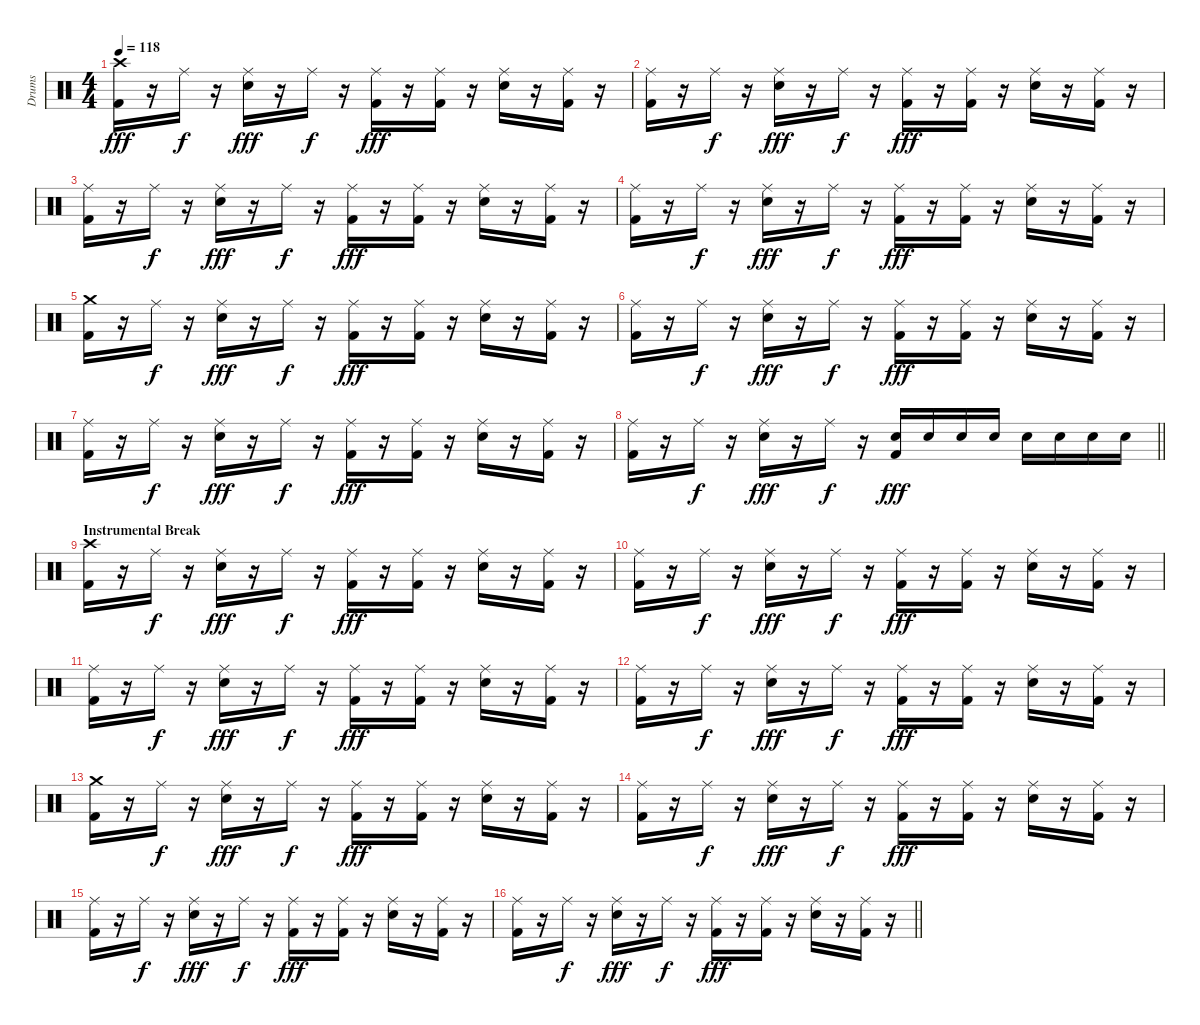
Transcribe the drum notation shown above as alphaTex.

\track ("Drums" "Drums") {instrument percussion}
\staff {score}
\articulation defaults
\ts (4 4)
\tempo 118
\clef neutral
\ks c
("Crash high (hit)" "Kick (hit) 2").16{dy fff} r.16 "Ride (middle)".16{dy f} r.16 ("Ride (middle)" "Snare (hit) 2").16{dy fff} r.16 "Ride (middle)".16{dy f} r.16 ("Ride (middle)" "Kick (hit) 2").16{dy fff} r.16 ("Ride (middle)" "Kick (hit) 2").16 r.16 ("Ride (middle)" "Snare (hit) 2").16 r.16 ("Ride (middle)" "Kick (hit) 2").16 r.16 |
("Ride (middle)" "Kick (hit) 2").16 r.16 "Ride (middle)".16{dy f} r.16 ("Ride (middle)" "Snare (hit) 2").16{dy fff} r.16 "Ride (middle)".16{dy f} r.16 ("Ride (middle)" "Kick (hit) 2").16{dy fff} r.16 ("Ride (middle)" "Kick (hit) 2").16 r.16 ("Ride (middle)" "Snare (hit) 2").16 r.16 ("Ride (middle)" "Kick (hit) 2").16 r.16 |
("Ride (middle)" "Kick (hit) 2").16 r.16 "Ride (middle)".16{dy f} r.16 ("Ride (middle)" "Snare (hit) 2").16{dy fff} r.16 "Ride (middle)".16{dy f} r.16 ("Ride (middle)" "Kick (hit) 2").16{dy fff} r.16 ("Ride (middle)" "Kick (hit) 2").16 r.16 ("Ride (middle)" "Snare (hit) 2").16 r.16 ("Ride (middle)" "Kick (hit) 2").16 r.16 |
("Ride (middle)" "Kick (hit) 2").16 r.16 "Ride (middle)".16{dy f} r.16 ("Ride (middle)" "Snare (hit) 2").16{dy fff} r.16 "Ride (middle)".16{dy f} r.16 ("Ride (middle)" "Kick (hit) 2").16{dy fff} r.16 ("Ride (middle)" "Kick (hit) 2").16 r.16 ("Ride (middle)" "Snare (hit) 2").16 r.16 ("Ride (middle)" "Kick (hit) 2").16 r.16 |
("Crash medium (hit)" "Kick (hit) 2").16 r.16 "Ride (middle)".16{dy f} r.16 ("Ride (middle)" "Snare (hit) 2").16{dy fff} r.16 "Ride (middle)".16{dy f} r.16 ("Ride (middle)" "Kick (hit) 2").16{dy fff} r.16 ("Ride (middle)" "Kick (hit) 2").16 r.16 ("Ride (middle)" "Snare (hit) 2").16 r.16 ("Ride (middle)" "Kick (hit) 2").16 r.16 |
("Ride (middle)" "Kick (hit) 2").16 r.16 "Ride (middle)".16{dy f} r.16 ("Ride (middle)" "Snare (hit) 2").16{dy fff} r.16 "Ride (middle)".16{dy f} r.16 ("Ride (middle)" "Kick (hit) 2").16{dy fff} r.16 ("Ride (middle)" "Kick (hit) 2").16 r.16 ("Ride (middle)" "Snare (hit) 2").16 r.16 ("Ride (middle)" "Kick (hit) 2").16 r.16 |
("Ride (middle)" "Kick (hit) 2").16 r.16 "Ride (middle)".16{dy f} r.16 ("Ride (middle)" "Snare (hit) 2").16{dy fff} r.16 "Ride (middle)".16{dy f} r.16 ("Ride (middle)" "Kick (hit) 2").16{dy fff} r.16 ("Ride (middle)" "Kick (hit) 2").16 r.16 ("Ride (middle)" "Snare (hit) 2").16 r.16 ("Ride (middle)" "Kick (hit) 2").16 r.16 |
\barLineRight lightlight
("Ride (middle)" "Kick (hit) 2").16 r.16 "Ride (middle)".16{dy f} r.16 ("Ride (middle)" "Snare (hit) 2").16{dy fff} r.16 "Ride (middle)".16{dy f} r.16 ("Snare (hit) 2" "Kick (hit) 2").16{dy fff} "Snare (hit) 2".16 "Snare (hit) 2".16 "Snare (hit) 2".16 "Snare (hit) 2".16 "Snare (hit) 2".16 "Snare (hit) 2".16 "Snare (hit) 2".16 |
\section ("" "Instrumental Break")
("Crash high (hit)" "Kick (hit) 2").16 r.16 "Ride (middle)".16{dy f} r.16 ("Ride (middle)" "Snare (hit) 2").16{dy fff} r.16 "Ride (middle)".16{dy f} r.16 ("Ride (middle)" "Kick (hit) 2").16{dy fff} r.16 ("Ride (middle)" "Kick (hit) 2").16 r.16 ("Ride (middle)" "Snare (hit) 2").16 r.16 ("Ride (middle)" "Kick (hit) 2").16 r.16 |
("Ride (middle)" "Kick (hit) 2").16 r.16 "Ride (middle)".16{dy f} r.16 ("Ride (middle)" "Snare (hit) 2").16{dy fff} r.16 "Ride (middle)".16{dy f} r.16 ("Ride (middle)" "Kick (hit) 2").16{dy fff} r.16 ("Ride (middle)" "Kick (hit) 2").16 r.16 ("Ride (middle)" "Snare (hit) 2").16 r.16 ("Ride (middle)" "Kick (hit) 2").16 r.16 |
("Ride (middle)" "Kick (hit) 2").16 r.16 "Ride (middle)".16{dy f} r.16 ("Ride (middle)" "Snare (hit) 2").16{dy fff} r.16 "Ride (middle)".16{dy f} r.16 ("Ride (middle)" "Kick (hit) 2").16{dy fff} r.16 ("Ride (middle)" "Kick (hit) 2").16 r.16 ("Ride (middle)" "Snare (hit) 2").16 r.16 ("Ride (middle)" "Kick (hit) 2").16 r.16 |
("Ride (middle)" "Kick (hit) 2").16 r.16 "Ride (middle)".16{dy f} r.16 ("Ride (middle)" "Snare (hit) 2").16{dy fff} r.16 "Ride (middle)".16{dy f} r.16 ("Ride (middle)" "Kick (hit) 2").16{dy fff} r.16 ("Ride (middle)" "Kick (hit) 2").16 r.16 ("Ride (middle)" "Snare (hit) 2").16 r.16 ("Ride (middle)" "Kick (hit) 2").16 r.16 |
("Crash medium (hit)" "Kick (hit) 2").16 r.16 "Ride (middle)".16{dy f} r.16 ("Ride (middle)" "Snare (hit) 2").16{dy fff} r.16 "Ride (middle)".16{dy f} r.16 ("Ride (middle)" "Kick (hit) 2").16{dy fff} r.16 ("Ride (middle)" "Kick (hit) 2").16 r.16 ("Ride (middle)" "Snare (hit) 2").16 r.16 ("Ride (middle)" "Kick (hit) 2").16 r.16 |
("Ride (middle)" "Kick (hit) 2").16 r.16 "Ride (middle)".16{dy f} r.16 ("Ride (middle)" "Snare (hit) 2").16{dy fff} r.16 "Ride (middle)".16{dy f} r.16 ("Ride (middle)" "Kick (hit) 2").16{dy fff} r.16 ("Ride (middle)" "Kick (hit) 2").16 r.16 ("Ride (middle)" "Snare (hit) 2").16 r.16 ("Ride (middle)" "Kick (hit) 2").16 r.16 |
("Ride (middle)" "Kick (hit) 2").16 r.16 "Ride (middle)".16{dy f} r.16 ("Ride (middle)" "Snare (hit) 2").16{dy fff} r.16 "Ride (middle)".16{dy f} r.16 ("Ride (middle)" "Kick (hit) 2").16{dy fff} r.16 ("Ride (middle)" "Kick (hit) 2").16 r.16 ("Ride (middle)" "Snare (hit) 2").16 r.16 ("Ride (middle)" "Kick (hit) 2").16 r.16 |
\barLineRight lightlight
("Ride (middle)" "Kick (hit) 2").16 r.16 "Ride (middle)".16{dy f} r.16 ("Ride (middle)" "Snare (hit) 2").16{dy fff} r.16 "Ride (middle)".16{dy f} r.16 ("Ride (middle)" "Kick (hit) 2").16{dy fff} r.16 ("Ride (middle)" "Kick (hit) 2").16 r.16 ("Ride (middle)" "Snare (hit) 2").16 r.16 ("Ride (middle)" "Kick (hit) 2").16 r.16
